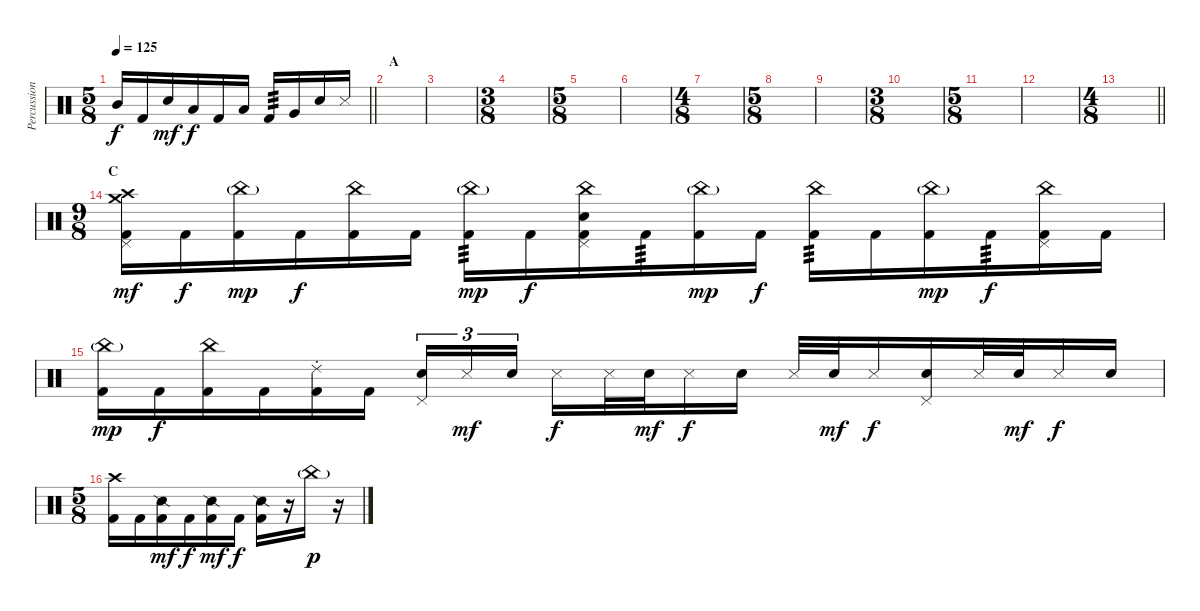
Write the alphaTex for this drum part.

\track ("Percussion" "Percussion") {instrument percussion}
\staff {score}
\articulation defaults
\ts (5 8)
\tempo 125
\clef neutral
\barLineRight lightlight
\ks c "Mid Tom (hit)".16{dy f} "Kick (hit) 2".16 "Snare (hit) 2".16{dy mf} "Low Tom (hit)".16{dy f} "Kick (hit) 2".16 "Low Tom (hit)".16 "Kick (hit) 2".16{tp 3} "Very Low Tom (hit)".16 "Snare (hit) 2".16 "Metronome (hit)".16
|
\section ("" "A")
|
|
\ts (3 8)
|
\ts (5 8)
|
|
\ts (4 8)
|
\ts (5 8)
|
|
\ts (3 8)
|
\ts (5 8)
|
|
\ts (4 8)
\barLineRight lightlight
|
\ts (9 8)
\section ("" "C")
("Crash medium (hit)" "Crash high (hit)" "Pedal Hi-Hat (hit)" "Kick (hit) 2").16{dy mf} "Kick (hit) 2".16{dy f} ("China (hit)"{g} "Kick (hit) 2").16{dy mp} "Kick (hit) 2".16{dy f} ("China (hit)" "Kick (hit) 2").16 "Kick (hit) 2".16 ("China (hit)"{g} "Kick (hit) 2").16{tp 3 dy mp} "Kick (hit) 2".16{dy f} ("China (hit)" "Pedal Hi-Hat (hit)" "Snare (hit) 2" "Kick (hit) 2").16 "Kick (hit) 2".16{tp 3} ("China (hit)"{g} "Kick (hit) 2").16{dy mp} "Kick (hit) 2".16{dy f} ("China (hit)" "Kick (hit) 2").16{tp 3} "Kick (hit) 2".16 ("China (hit)"{g} "Kick (hit) 2").16{dy mp} "Kick (hit) 2".16{tp 3 dy f} ("China (hit)" "Pedal Hi-Hat (hit)" "Kick (hit) 2").16 "Kick (hit) 2".16 |
("China (hit)"{g} "Kick (hit) 2").16{dy mp} "Kick (hit) 2".16{dy f} ("China (hit)" "Kick (hit) 2").16 "Kick (hit) 2".16 ("Ride (choke) 2" "Kick (hit) 2").16 "Kick (hit) 2".16 ("Pedal Hi-Hat (hit)" "Snare (hit) 2").16{tu (3 2)} "Metronome (hit)".16{tu (3 2) dy mf} "Snare (hit) 2".16{tu (3 2) beam splitsecondary} "Metronome (hit)".16{dy f} "Metronome (hit)".32 "Snare (hit) 2".32{dy mf} "Metronome (hit)".16{dy f} "Snare (hit) 2".16 "Metronome (hit)".32 "Snare (hit) 2".32{dy mf} "Metronome (hit)".16{dy f} ("Pedal Hi-Hat (hit)" "Snare (hit) 2").16 "Metronome (hit)".32 "Snare (hit) 2".32{dy mf} "Metronome (hit)".16{dy f} "Snare (hit) 2".16 |
\ts (5 8)
("Crash high (hit)" "Kick (hit) 2").16 "Kick (hit) 2".16 ("Snare (side stick) 2" "Kick (hit) 2").16{dy mf} "Kick (hit) 2".16{dy f} ("Snare (side stick) 2" "Kick (hit) 2").16{dy mf} "Kick (hit) 2".16{dy f} ("Snare (side stick) 2" "Kick (hit) 2").16 r.16 "China (hit)"{g}.16{dy p} r.16
